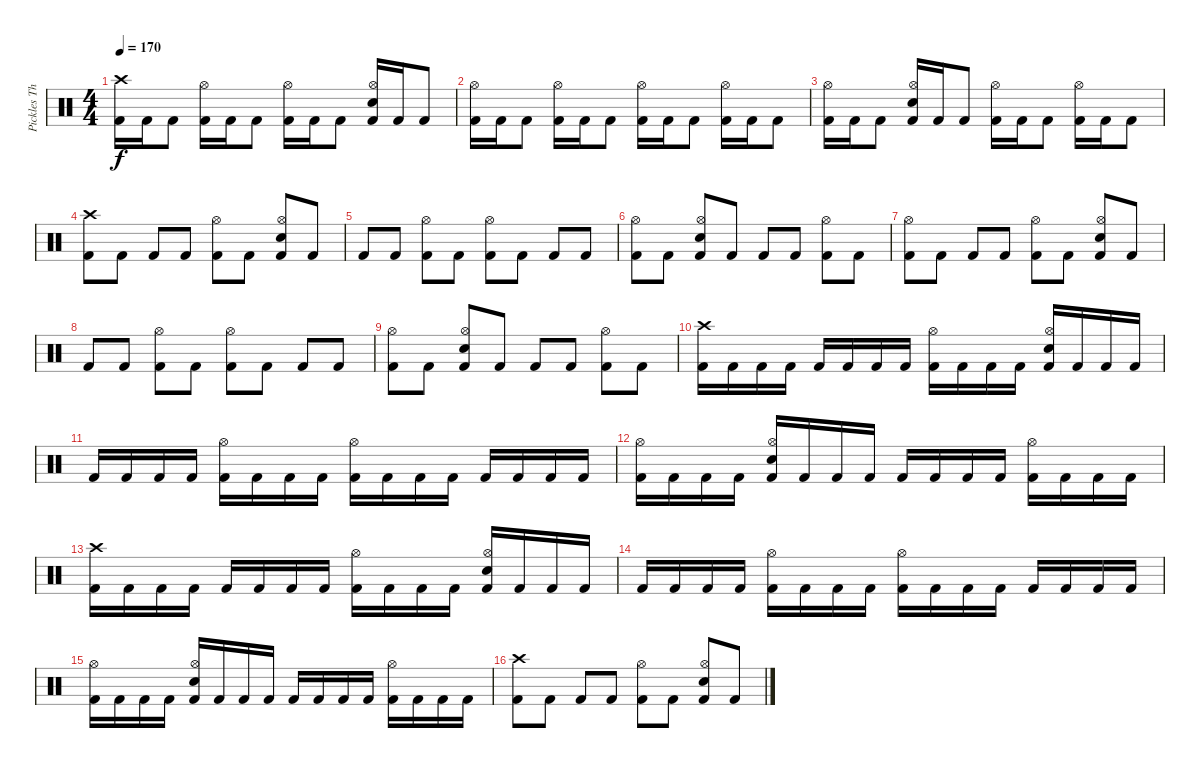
\track ("Pickles The Drummer" "Pickles Th") {instrument percussion}
\staff {score}
\articulation defaults
\ts (4 4)
\tempo 170
\clef neutral
\ks c
("Kick (hit) 2" "Crash high (hit)").16{dy f} "Kick (hit) 2".16 "Kick (hit) 2".8 ("Kick (hit) 2" "Hi-Hat (open)").16 "Kick (hit) 2".16 "Kick (hit) 2".8 ("Kick (hit) 2" "Hi-Hat (open)").16 "Kick (hit) 2".16 "Kick (hit) 2".8 ("Kick (hit) 2" "Hi-Hat (open)" "Snare (hit) 2").16 "Kick (hit) 2".16 "Kick (hit) 2".8 |
("Kick (hit) 2" "Hi-Hat (open)").16 "Kick (hit) 2".16 "Kick (hit) 2".8 ("Kick (hit) 2" "Hi-Hat (open)").16 "Kick (hit) 2".16 "Kick (hit) 2".8 ("Kick (hit) 2" "Hi-Hat (open)").16 "Kick (hit) 2".16 "Kick (hit) 2".8 ("Kick (hit) 2" "Hi-Hat (open)").16 "Kick (hit) 2".16 "Kick (hit) 2".8 |
("Kick (hit) 2" "Hi-Hat (open)").16 "Kick (hit) 2".16 "Kick (hit) 2".8 ("Kick (hit) 2" "Hi-Hat (open)" "Snare (hit) 2").16 "Kick (hit) 2".16 "Kick (hit) 2".8 ("Kick (hit) 2" "Hi-Hat (open)").16 "Kick (hit) 2".16 "Kick (hit) 2".8 ("Kick (hit) 2" "Hi-Hat (open)").16 "Kick (hit) 2".16 "Kick (hit) 2".8 |
("Kick (hit) 2" "Crash high (hit)").8 "Kick (hit) 2".8 "Kick (hit) 2".8 "Kick (hit) 2".8 ("Kick (hit) 2" "Hi-Hat (open)").8 "Kick (hit) 2".8 ("Kick (hit) 2" "Hi-Hat (open)" "Snare (hit) 2").8 "Kick (hit) 2".8 |
"Kick (hit) 2".8 "Kick (hit) 2".8 ("Kick (hit) 2" "Hi-Hat (open)").8 "Kick (hit) 2".8 ("Kick (hit) 2" "Hi-Hat (open)").8 "Kick (hit) 2".8 "Kick (hit) 2".8 "Kick (hit) 2".8 |
("Kick (hit) 2" "Hi-Hat (open)").8 "Kick (hit) 2".8 ("Kick (hit) 2" "Hi-Hat (open)" "Snare (hit) 2").8 "Kick (hit) 2".8 "Kick (hit) 2".8 "Kick (hit) 2".8 ("Kick (hit) 2" "Hi-Hat (open)").8 "Kick (hit) 2".8 |
("Kick (hit) 2" "Hi-Hat (open)").8 "Kick (hit) 2".8 "Kick (hit) 2".8 "Kick (hit) 2".8 ("Kick (hit) 2" "Hi-Hat (open)").8 "Kick (hit) 2".8 ("Kick (hit) 2" "Hi-Hat (open)" "Snare (hit) 2").8 "Kick (hit) 2".8 |
"Kick (hit) 2".8 "Kick (hit) 2".8 ("Kick (hit) 2" "Hi-Hat (open)").8 "Kick (hit) 2".8 ("Kick (hit) 2" "Hi-Hat (open)").8 "Kick (hit) 2".8 "Kick (hit) 2".8 "Kick (hit) 2".8 |
("Kick (hit) 2" "Hi-Hat (open)").8 "Kick (hit) 2".8 ("Kick (hit) 2" "Hi-Hat (open)" "Snare (hit) 2").8 "Kick (hit) 2".8 "Kick (hit) 2".8 "Kick (hit) 2".8 ("Kick (hit) 2" "Hi-Hat (open)").8 "Kick (hit) 2".8 |
("Kick (hit) 2" "Crash high (hit)").16 "Kick (hit) 2".16 "Kick (hit) 2".16 "Kick (hit) 2".16 "Kick (hit) 2".16 "Kick (hit) 2".16 "Kick (hit) 2".16 "Kick (hit) 2".16 ("Kick (hit) 2" "Hi-Hat (open)").16 "Kick (hit) 2".16 "Kick (hit) 2".16 "Kick (hit) 2".16 ("Kick (hit) 2" "Hi-Hat (open)" "Snare (hit) 2").16 "Kick (hit) 2".16 "Kick (hit) 2".16 "Kick (hit) 2".16 |
"Kick (hit) 2".16 "Kick (hit) 2".16 "Kick (hit) 2".16 "Kick (hit) 2".16 ("Kick (hit) 2" "Hi-Hat (open)").16 "Kick (hit) 2".16 "Kick (hit) 2".16 "Kick (hit) 2".16 ("Kick (hit) 2" "Hi-Hat (open)").16 "Kick (hit) 2".16 "Kick (hit) 2".16 "Kick (hit) 2".16 "Kick (hit) 2".16 "Kick (hit) 2".16 "Kick (hit) 2".16 "Kick (hit) 2".16 |
("Kick (hit) 2" "Hi-Hat (open)").16 "Kick (hit) 2".16 "Kick (hit) 2".16 "Kick (hit) 2".16 ("Kick (hit) 2" "Hi-Hat (open)" "Snare (hit) 2").16 "Kick (hit) 2".16 "Kick (hit) 2".16 "Kick (hit) 2".16 "Kick (hit) 2".16 "Kick (hit) 2".16 "Kick (hit) 2".16 "Kick (hit) 2".16 ("Kick (hit) 2" "Hi-Hat (open)").16 "Kick (hit) 2".16 "Kick (hit) 2".16 "Kick (hit) 2".16 |
("Kick (hit) 2" "Crash high (hit)").16 "Kick (hit) 2".16 "Kick (hit) 2".16 "Kick (hit) 2".16 "Kick (hit) 2".16 "Kick (hit) 2".16 "Kick (hit) 2".16 "Kick (hit) 2".16 ("Kick (hit) 2" "Hi-Hat (open)").16 "Kick (hit) 2".16 "Kick (hit) 2".16 "Kick (hit) 2".16 ("Kick (hit) 2" "Hi-Hat (open)" "Snare (hit) 2").16 "Kick (hit) 2".16 "Kick (hit) 2".16 "Kick (hit) 2".16 |
"Kick (hit) 2".16 "Kick (hit) 2".16 "Kick (hit) 2".16 "Kick (hit) 2".16 ("Kick (hit) 2" "Hi-Hat (open)").16 "Kick (hit) 2".16 "Kick (hit) 2".16 "Kick (hit) 2".16 ("Kick (hit) 2" "Hi-Hat (open)").16 "Kick (hit) 2".16 "Kick (hit) 2".16 "Kick (hit) 2".16 "Kick (hit) 2".16 "Kick (hit) 2".16 "Kick (hit) 2".16 "Kick (hit) 2".16 |
("Kick (hit) 2" "Hi-Hat (open)").16 "Kick (hit) 2".16 "Kick (hit) 2".16 "Kick (hit) 2".16 ("Kick (hit) 2" "Hi-Hat (open)" "Snare (hit) 2").16 "Kick (hit) 2".16 "Kick (hit) 2".16 "Kick (hit) 2".16 "Kick (hit) 2".16 "Kick (hit) 2".16 "Kick (hit) 2".16 "Kick (hit) 2".16 ("Kick (hit) 2" "Hi-Hat (open)").16 "Kick (hit) 2".16 "Kick (hit) 2".16 "Kick (hit) 2".16 |
("Kick (hit) 2" "Crash high (hit)").8 "Kick (hit) 2".8 "Kick (hit) 2".8 "Kick (hit) 2".8 ("Kick (hit) 2" "Hi-Hat (open)").8 "Kick (hit) 2".8 ("Kick (hit) 2" "Hi-Hat (open)" "Snare (hit) 2").8 "Kick (hit) 2".8
